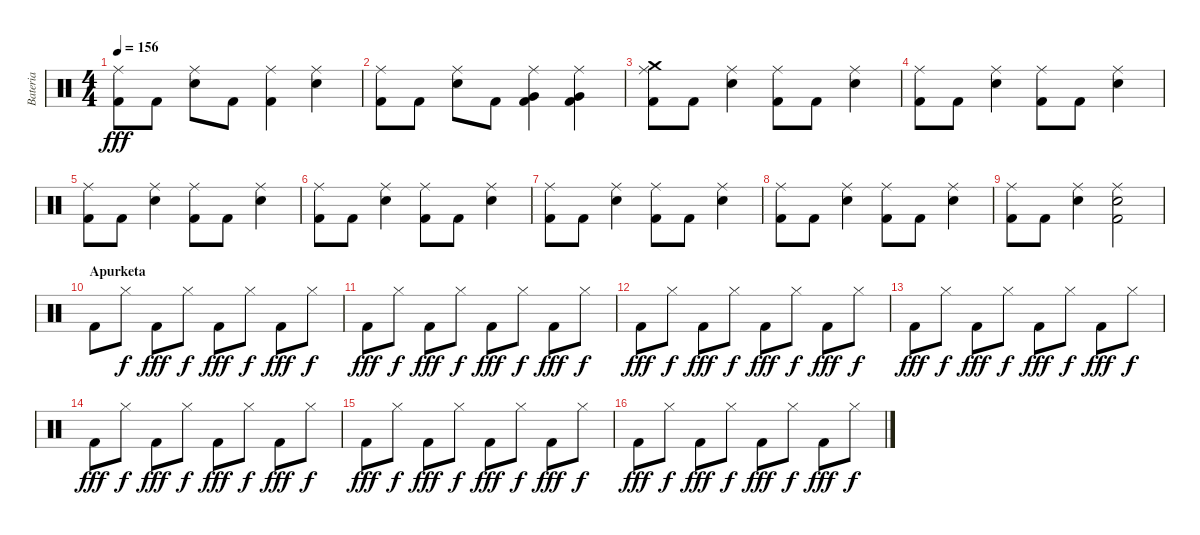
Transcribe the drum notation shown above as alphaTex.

\track ("Bateria" "Bateria") {instrument percussion}
\staff {score}
\articulation defaults
\ts (4 4)
\tempo 156
\clef neutral
\ks c
("Ride (middle)" "Kick (hit) 2").8{dy fff} "Kick (hit) 2".8 ("Ride (middle)" "Electric Snare (hit)").8 "Kick (hit) 2".8 ("Ride (middle)" "Kick (hit) 2").4 ("Ride (middle)" "Electric Snare (hit)").4 |
("Ride (middle)" "Kick (hit) 2").8 "Kick (hit) 2".8 ("Ride (middle)" "Electric Snare (hit)").8 "Kick (hit) 2".8 ("Ride (middle)" "Kick (hit) 2" "Very Low Tom (hit)").4 ("Ride (middle)" "Kick (hit) 2" "Very Low Tom (hit)").4 |
("Ride (middle)" "Kick (hit) 2" "Crash medium (hit)").8 "Kick (hit) 2".8 ("Ride (middle)" "Electric Snare (hit)").4 ("Ride (middle)" "Kick (hit) 2").8 "Kick (hit) 2".8 ("Ride (middle)" "Electric Snare (hit)").4 |
("Ride (middle)" "Kick (hit) 2").8 "Kick (hit) 2".8 ("Ride (middle)" "Electric Snare (hit)").4 ("Ride (middle)" "Kick (hit) 2").8 "Kick (hit) 2".8 ("Ride (middle)" "Electric Snare (hit)").4 |
("Ride (middle)" "Kick (hit) 2").8 "Kick (hit) 2".8 ("Ride (middle)" "Electric Snare (hit)").4 ("Ride (middle)" "Kick (hit) 2").8 "Kick (hit) 2".8 ("Ride (middle)" "Electric Snare (hit)").4 |
("Ride (middle)" "Kick (hit) 2").8 "Kick (hit) 2".8 ("Ride (middle)" "Electric Snare (hit)").4 ("Ride (middle)" "Kick (hit) 2").8 "Kick (hit) 2".8 ("Ride (middle)" "Electric Snare (hit)").4 |
("Ride (middle)" "Kick (hit) 2").8 "Kick (hit) 2".8 ("Ride (middle)" "Electric Snare (hit)").4 ("Ride (middle)" "Kick (hit) 2").8 "Kick (hit) 2".8 ("Ride (middle)" "Electric Snare (hit)").4 |
("Ride (middle)" "Kick (hit) 2").8 "Kick (hit) 2".8 ("Ride (middle)" "Electric Snare (hit)").4 ("Ride (middle)" "Kick (hit) 2").8 "Kick (hit) 2".8 ("Ride (middle)" "Electric Snare (hit)").4 |
("Ride (middle)" "Kick (hit) 2").8 "Kick (hit) 2".8 ("Ride (middle)" "Electric Snare (hit)").4 ("Ride (middle)" "Kick (hit) 2" "Electric Snare (hit)").2 |
\section ("" "Apurketa")
"Kick (hit) 2".8 "Hi-Hat (closed)".8{dy f} "Kick (hit) 2".8{dy fff} "Hi-Hat (closed)".8{dy f} "Kick (hit) 2".8{dy fff} "Hi-Hat (closed)".8{dy f} "Kick (hit) 2".8{dy fff} "Hi-Hat (closed)".8{dy f} |
"Kick (hit) 2".8{dy fff} "Hi-Hat (closed)".8{dy f} "Kick (hit) 2".8{dy fff} "Hi-Hat (closed)".8{dy f} "Kick (hit) 2".8{dy fff} "Hi-Hat (closed)".8{dy f} "Kick (hit) 2".8{dy fff} "Hi-Hat (closed)".8{dy f} |
"Kick (hit) 2".8{dy fff} "Hi-Hat (closed)".8{dy f} "Kick (hit) 2".8{dy fff} "Hi-Hat (closed)".8{dy f} "Kick (hit) 2".8{dy fff} "Hi-Hat (closed)".8{dy f} "Kick (hit) 2".8{dy fff} "Hi-Hat (closed)".8{dy f} |
"Kick (hit) 2".8{dy fff} "Hi-Hat (closed)".8{dy f} "Kick (hit) 2".8{dy fff} "Hi-Hat (closed)".8{dy f} "Kick (hit) 2".8{dy fff} "Hi-Hat (closed)".8{dy f} "Kick (hit) 2".8{dy fff} "Hi-Hat (closed)".8{dy f} |
"Kick (hit) 2".8{dy fff} "Hi-Hat (closed)".8{dy f} "Kick (hit) 2".8{dy fff} "Hi-Hat (closed)".8{dy f} "Kick (hit) 2".8{dy fff} "Hi-Hat (closed)".8{dy f} "Kick (hit) 2".8{dy fff} "Hi-Hat (closed)".8{dy f} |
"Kick (hit) 2".8{dy fff} "Hi-Hat (closed)".8{dy f} "Kick (hit) 2".8{dy fff} "Hi-Hat (closed)".8{dy f} "Kick (hit) 2".8{dy fff} "Hi-Hat (closed)".8{dy f} "Kick (hit) 2".8{dy fff} "Hi-Hat (closed)".8{dy f} |
"Kick (hit) 2".8{dy fff} "Hi-Hat (closed)".8{dy f} "Kick (hit) 2".8{dy fff} "Hi-Hat (closed)".8{dy f} "Kick (hit) 2".8{dy fff} "Hi-Hat (closed)".8{dy f} "Kick (hit) 2".8{dy fff} "Hi-Hat (closed)".8{dy f}
